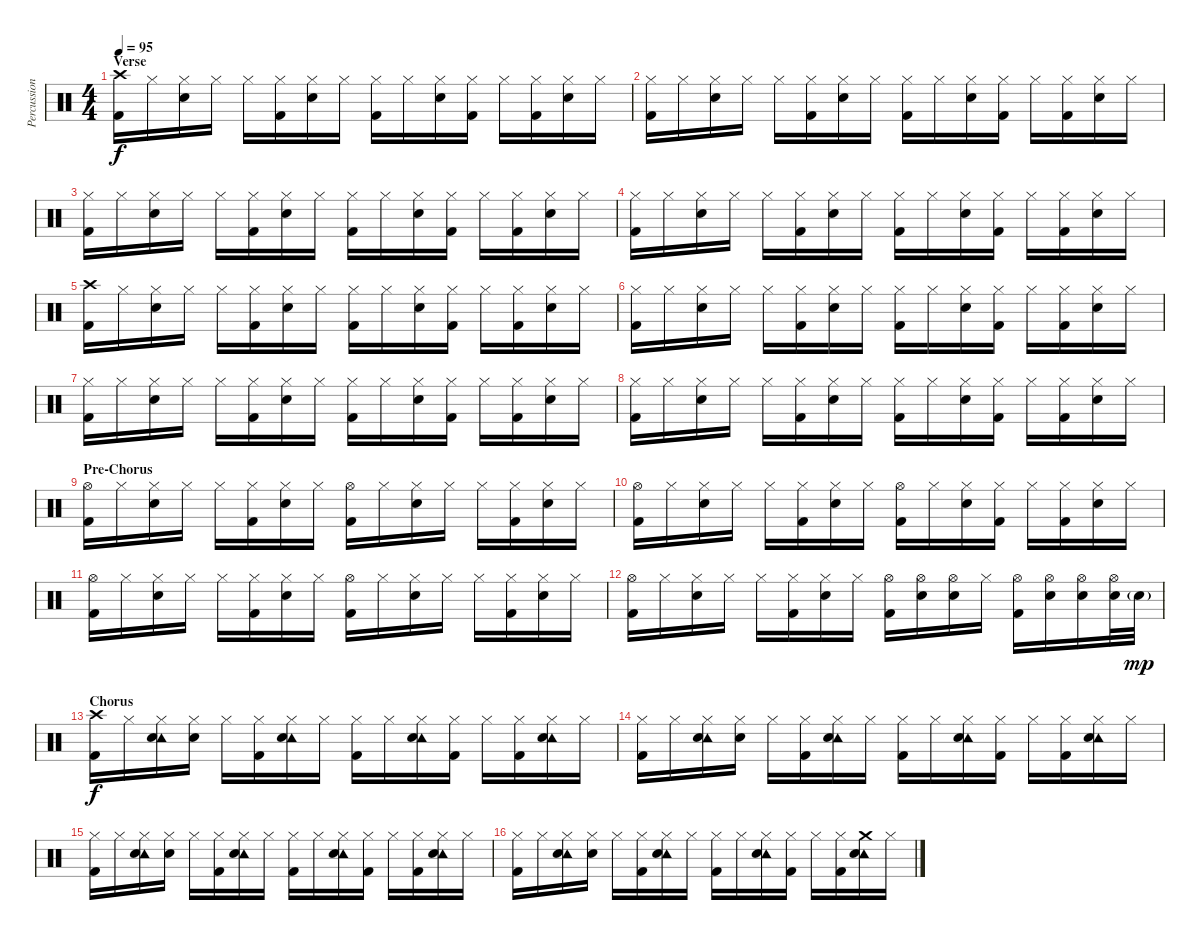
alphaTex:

\track ("Percussion" "Percussion") {instrument percussion}
\staff {score}
\articulation defaults
\ts (4 4)
\section ("" "Verse")
\tempo 95
\clef neutral
\ks c
("Crash high (hit)" "Kick (hit) 2").16{dy f} "Hi-Hat (closed)".16 ("Hi-Hat (closed)" "Electric Snare (hit)").16 "Hi-Hat (closed)".16 "Hi-Hat (closed)".16 ("Hi-Hat (closed)" "Kick (hit) 2").16 ("Hi-Hat (closed)" "Electric Snare (hit)").16 "Hi-Hat (closed)".16 ("Hi-Hat (closed)" "Kick (hit) 2").16 "Hi-Hat (closed)".16 ("Hi-Hat (closed)" "Electric Snare (hit)").16 ("Hi-Hat (closed)" "Kick (hit) 2").16 "Hi-Hat (closed)".16 ("Hi-Hat (closed)" "Kick (hit) 2").16 ("Hi-Hat (closed)" "Electric Snare (hit)").16 "Hi-Hat (closed)".16 |
("Hi-Hat (closed)" "Kick (hit) 2").16 "Hi-Hat (closed)".16 ("Hi-Hat (closed)" "Electric Snare (hit)").16 "Hi-Hat (closed)".16 "Hi-Hat (closed)".16 ("Hi-Hat (closed)" "Kick (hit) 2").16 ("Hi-Hat (closed)" "Electric Snare (hit)").16 "Hi-Hat (closed)".16 ("Hi-Hat (closed)" "Kick (hit) 2").16 "Hi-Hat (closed)".16 ("Hi-Hat (closed)" "Electric Snare (hit)").16 ("Hi-Hat (closed)" "Kick (hit) 2").16 "Hi-Hat (closed)".16 ("Hi-Hat (closed)" "Kick (hit) 2").16 ("Hi-Hat (closed)" "Electric Snare (hit)").16 "Hi-Hat (closed)".16 |
("Hi-Hat (closed)" "Kick (hit) 2").16 "Hi-Hat (closed)".16 ("Hi-Hat (closed)" "Electric Snare (hit)").16 "Hi-Hat (closed)".16 "Hi-Hat (closed)".16 ("Hi-Hat (closed)" "Kick (hit) 2").16 ("Hi-Hat (closed)" "Electric Snare (hit)").16 "Hi-Hat (closed)".16 ("Hi-Hat (closed)" "Kick (hit) 2").16 "Hi-Hat (closed)".16 ("Hi-Hat (closed)" "Electric Snare (hit)").16 ("Hi-Hat (closed)" "Kick (hit) 2").16 "Hi-Hat (closed)".16 ("Hi-Hat (closed)" "Kick (hit) 2").16 ("Hi-Hat (closed)" "Electric Snare (hit)").16 "Hi-Hat (closed)".16 |
("Hi-Hat (closed)" "Kick (hit) 2").16 "Hi-Hat (closed)".16 ("Hi-Hat (closed)" "Electric Snare (hit)").16 "Hi-Hat (closed)".16 "Hi-Hat (closed)".16 ("Hi-Hat (closed)" "Kick (hit) 2").16 ("Hi-Hat (closed)" "Electric Snare (hit)").16 "Hi-Hat (closed)".16 ("Hi-Hat (closed)" "Kick (hit) 2").16 "Hi-Hat (closed)".16 ("Hi-Hat (closed)" "Electric Snare (hit)").16 ("Hi-Hat (closed)" "Kick (hit) 2").16 "Hi-Hat (closed)".16 ("Hi-Hat (closed)" "Kick (hit) 2").16 ("Hi-Hat (closed)" "Electric Snare (hit)").16 "Hi-Hat (closed)".16 |
("Crash high (hit)" "Kick (hit) 2").16 "Hi-Hat (closed)".16 ("Hi-Hat (closed)" "Electric Snare (hit)").16 "Hi-Hat (closed)".16 "Hi-Hat (closed)".16 ("Hi-Hat (closed)" "Kick (hit) 2").16 ("Hi-Hat (closed)" "Electric Snare (hit)").16 "Hi-Hat (closed)".16 ("Hi-Hat (closed)" "Kick (hit) 2").16 "Hi-Hat (closed)".16 ("Hi-Hat (closed)" "Electric Snare (hit)").16 ("Hi-Hat (closed)" "Kick (hit) 2").16 "Hi-Hat (closed)".16 ("Hi-Hat (closed)" "Kick (hit) 2").16 ("Hi-Hat (closed)" "Electric Snare (hit)").16 "Hi-Hat (closed)".16 |
("Hi-Hat (closed)" "Kick (hit) 2").16 "Hi-Hat (closed)".16 ("Hi-Hat (closed)" "Electric Snare (hit)").16 "Hi-Hat (closed)".16 "Hi-Hat (closed)".16 ("Hi-Hat (closed)" "Kick (hit) 2").16 ("Hi-Hat (closed)" "Electric Snare (hit)").16 "Hi-Hat (closed)".16 ("Hi-Hat (closed)" "Kick (hit) 2").16 "Hi-Hat (closed)".16 ("Hi-Hat (closed)" "Electric Snare (hit)").16 ("Hi-Hat (closed)" "Kick (hit) 2").16 "Hi-Hat (closed)".16 ("Hi-Hat (closed)" "Kick (hit) 2").16 ("Hi-Hat (closed)" "Electric Snare (hit)").16 "Hi-Hat (closed)".16 |
("Hi-Hat (closed)" "Kick (hit) 2").16 "Hi-Hat (closed)".16 ("Hi-Hat (closed)" "Electric Snare (hit)").16 "Hi-Hat (closed)".16 "Hi-Hat (closed)".16 ("Hi-Hat (closed)" "Kick (hit) 2").16 ("Hi-Hat (closed)" "Electric Snare (hit)").16 "Hi-Hat (closed)".16 ("Hi-Hat (closed)" "Kick (hit) 2").16 "Hi-Hat (closed)".16 ("Hi-Hat (closed)" "Electric Snare (hit)").16 ("Hi-Hat (closed)" "Kick (hit) 2").16 "Hi-Hat (closed)".16 ("Hi-Hat (closed)" "Kick (hit) 2").16 ("Hi-Hat (closed)" "Electric Snare (hit)").16 "Hi-Hat (closed)".16 |
("Hi-Hat (closed)" "Kick (hit) 2").16 "Hi-Hat (closed)".16 ("Hi-Hat (closed)" "Electric Snare (hit)").16 "Hi-Hat (closed)".16 "Hi-Hat (closed)".16 ("Hi-Hat (closed)" "Kick (hit) 2").16 ("Hi-Hat (closed)" "Electric Snare (hit)").16 "Hi-Hat (closed)".16 ("Hi-Hat (closed)" "Kick (hit) 2").16 "Hi-Hat (closed)".16 ("Hi-Hat (closed)" "Electric Snare (hit)").16 ("Hi-Hat (closed)" "Kick (hit) 2").16 "Hi-Hat (closed)".16 ("Hi-Hat (closed)" "Kick (hit) 2").16 ("Hi-Hat (closed)" "Electric Snare (hit)").16 "Hi-Hat (closed)".16 |
\section ("" "Pre-Chorus")
("Hi-Hat (open)" "Kick (hit) 2").16 "Hi-Hat (closed)".16 ("Hi-Hat (closed)" "Electric Snare (hit)").16 "Hi-Hat (closed)".16 "Hi-Hat (closed)".16 ("Hi-Hat (closed)" "Kick (hit) 2").16 ("Hi-Hat (closed)" "Electric Snare (hit)").16 "Hi-Hat (closed)".16 ("Hi-Hat (open)" "Kick (hit) 2").16 "Hi-Hat (closed)".16 ("Hi-Hat (closed)" "Electric Snare (hit)").16 "Hi-Hat (closed)".16 "Hi-Hat (closed)".16 ("Hi-Hat (closed)" "Kick (hit) 2").16 ("Hi-Hat (closed)" "Electric Snare (hit)").16 "Hi-Hat (closed)".16 |
("Hi-Hat (open)" "Kick (hit) 2").16 "Hi-Hat (closed)".16 ("Hi-Hat (closed)" "Electric Snare (hit)").16 "Hi-Hat (closed)".16 "Hi-Hat (closed)".16 ("Hi-Hat (closed)" "Kick (hit) 2").16 ("Hi-Hat (closed)" "Electric Snare (hit)").16 "Hi-Hat (closed)".16 ("Hi-Hat (open)" "Kick (hit) 2").16 "Hi-Hat (closed)".16 ("Hi-Hat (closed)" "Electric Snare (hit)").16 ("Hi-Hat (closed)" "Kick (hit) 2").16 "Hi-Hat (closed)".16 ("Hi-Hat (closed)" "Kick (hit) 2").16 ("Hi-Hat (closed)" "Electric Snare (hit)").16 "Hi-Hat (closed)".16 |
("Hi-Hat (open)" "Kick (hit) 2").16 "Hi-Hat (closed)".16 ("Hi-Hat (closed)" "Electric Snare (hit)").16 "Hi-Hat (closed)".16 "Hi-Hat (closed)".16 ("Hi-Hat (closed)" "Kick (hit) 2").16 ("Hi-Hat (closed)" "Electric Snare (hit)").16 "Hi-Hat (closed)".16 ("Hi-Hat (open)" "Kick (hit) 2").16 "Hi-Hat (closed)".16 ("Hi-Hat (closed)" "Electric Snare (hit)").16 "Hi-Hat (closed)".16 "Hi-Hat (closed)".16 ("Hi-Hat (closed)" "Kick (hit) 2").16 ("Hi-Hat (closed)" "Electric Snare (hit)").16 "Hi-Hat (closed)".16 |
("Hi-Hat (open)" "Kick (hit) 2").16 "Hi-Hat (closed)".16 ("Hi-Hat (closed)" "Electric Snare (hit)").16 "Hi-Hat (closed)".16 "Hi-Hat (closed)".16 ("Hi-Hat (closed)" "Kick (hit) 2").16 ("Hi-Hat (closed)" "Electric Snare (hit)").16 "Hi-Hat (closed)".16 ("Hi-Hat (open)" "Kick (hit) 2").16 ("Hi-Hat (open)" "Electric Snare (hit)").16 ("Hi-Hat (open)" "Electric Snare (hit)").16 "Hi-Hat (closed)".16 ("Hi-Hat (open)" "Kick (hit) 2").16 ("Hi-Hat (open)" "Electric Snare (hit)").16 ("Hi-Hat (open)" "Electric Snare (hit)").16 ("Hi-Hat (open)" "Electric Snare (hit)").32 "Electric Snare (hit)"{g}.32{dy mp} |
\section ("" "Chorus")
("Crash high (hit)" "Kick (hit) 2").16{dy f} "Hi-Hat (closed)".16 ("Tambourine (hit)" "Hi-Hat (closed)" "Electric Snare (hit)").16 ("Hi-Hat (closed)" "Electric Snare (hit)").16 "Hi-Hat (closed)".16 ("Hi-Hat (closed)" "Kick (hit) 2").16 ("Tambourine (hit)" "Hi-Hat (closed)" "Electric Snare (hit)").16 "Hi-Hat (closed)".16 ("Hi-Hat (closed)" "Kick (hit) 2").16 "Hi-Hat (closed)".16 ("Tambourine (hit)" "Hi-Hat (closed)" "Electric Snare (hit)").16 ("Hi-Hat (closed)" "Kick (hit) 2").16 "Hi-Hat (closed)".16 ("Hi-Hat (closed)" "Kick (hit) 2").16 ("Tambourine (hit)" "Hi-Hat (closed)" "Electric Snare (hit)").16 "Hi-Hat (closed)".16 |
("Hi-Hat (closed)" "Kick (hit) 2").16 "Hi-Hat (closed)".16 ("Tambourine (hit)" "Hi-Hat (closed)" "Electric Snare (hit)").16 ("Hi-Hat (closed)" "Electric Snare (hit)").16 "Hi-Hat (closed)".16 ("Hi-Hat (closed)" "Kick (hit) 2").16 ("Tambourine (hit)" "Hi-Hat (closed)" "Electric Snare (hit)").16 "Hi-Hat (closed)".16 ("Hi-Hat (closed)" "Kick (hit) 2").16 "Hi-Hat (closed)".16 ("Tambourine (hit)" "Hi-Hat (closed)" "Electric Snare (hit)").16 ("Hi-Hat (closed)" "Kick (hit) 2").16 "Hi-Hat (closed)".16 ("Hi-Hat (closed)" "Kick (hit) 2").16 ("Tambourine (hit)" "Hi-Hat (closed)" "Electric Snare (hit)").16 "Hi-Hat (closed)".16 |
("Hi-Hat (closed)" "Kick (hit) 2").16 "Hi-Hat (closed)".16 ("Tambourine (hit)" "Hi-Hat (closed)" "Electric Snare (hit)").16 ("Hi-Hat (closed)" "Electric Snare (hit)").16 "Hi-Hat (closed)".16 ("Hi-Hat (closed)" "Kick (hit) 2").16 ("Tambourine (hit)" "Hi-Hat (closed)" "Electric Snare (hit)").16 "Hi-Hat (closed)".16 ("Hi-Hat (closed)" "Kick (hit) 2").16 "Hi-Hat (closed)".16 ("Tambourine (hit)" "Hi-Hat (closed)" "Electric Snare (hit)").16 ("Hi-Hat (closed)" "Kick (hit) 2").16 "Hi-Hat (closed)".16 ("Hi-Hat (closed)" "Kick (hit) 2").16 ("Tambourine (hit)" "Hi-Hat (closed)" "Electric Snare (hit)").16 "Hi-Hat (closed)".16 |
("Hi-Hat (closed)" "Kick (hit) 2").16 "Hi-Hat (closed)".16 ("Tambourine (hit)" "Hi-Hat (closed)" "Electric Snare (hit)").16 ("Hi-Hat (closed)" "Electric Snare (hit)").16 "Hi-Hat (closed)".16 ("Hi-Hat (closed)" "Kick (hit) 2").16 ("Tambourine (hit)" "Hi-Hat (closed)" "Electric Snare (hit)").16 "Hi-Hat (closed)".16 ("Hi-Hat (closed)" "Kick (hit) 2").16 "Hi-Hat (closed)".16 ("Tambourine (hit)" "Hi-Hat (closed)" "Electric Snare (hit)").16 ("Hi-Hat (closed)" "Kick (hit) 2").16 "Hi-Hat (closed)".16 ("Hi-Hat (closed)" "Kick (hit) 2").16 ("Tambourine (hit)" "Crash medium (hit)" "Electric Snare (hit)").16 "Hi-Hat (closed)".16
